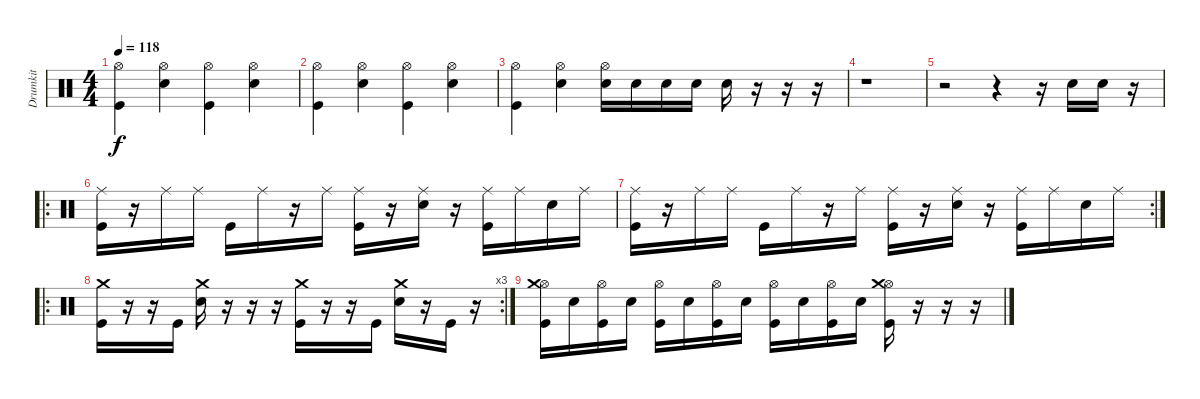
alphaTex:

\track ("Drumkit" "Drumkit") {instrument percussion}
\staff {score}
\articulation defaults
\ts (4 4)
\tempo 118
\clef neutral
\ks c
("Hi-Hat (open)" "Kick (hit)").4{dy f} ("Hi-Hat (open)" "Snare (hit) 2").4 ("Hi-Hat (open)" "Kick (hit)").4 ("Hi-Hat (open)" "Snare (hit) 2").4 |
("Hi-Hat (open)" "Kick (hit)").4 ("Hi-Hat (open)" "Snare (hit) 2").4 ("Hi-Hat (open)" "Kick (hit)").4 ("Hi-Hat (open)" "Snare (hit) 2").4 |
("Hi-Hat (open)" "Kick (hit)").4 ("Hi-Hat (open)" "Snare (hit) 2").4 ("Hi-Hat (open)" "Snare (hit) 2").16 "Snare (hit) 2".16 "Snare (hit) 2".16 "Snare (hit) 2".16 "Snare (hit) 2".16 r.16 r.16 r.16 |
r.1 |
r.2 r.4 r.16 "Snare (hit) 2".16 "Snare (hit) 2".16 r.16 |
\ro
("Ride (middle)" "Kick (hit)").16 r.16 "Ride (middle)".16 "Ride (middle)".16 "Kick (hit)".16 "Ride (middle)".16 r.16 "Ride (middle)".16 ("Ride (middle)" "Kick (hit)").16 r.16 ("Ride (middle)" "Snare (hit) 2").16 r.16 ("Ride (middle)" "Kick (hit)").16 "Ride (middle)".16 "Snare (hit) 2".16 "Ride (middle)".16 |
\rc 2
("Ride (middle)" "Kick (hit)").16 r.16 "Ride (middle)".16 "Ride (middle)".16 "Kick (hit)".16 "Ride (middle)".16 r.16 "Ride (middle)".16 ("Ride (middle)" "Kick (hit)").16 r.16 ("Ride (middle)" "Snare (hit) 2").16 r.16 ("Ride (middle)" "Kick (hit)").16 "Ride (middle)".16 "Snare (hit) 2".16 "Ride (middle)".16 |
\ro
\rc 3
("Crash medium (hit)" "Kick (hit)").16 r.16 r.16 "Kick (hit)".16 ("Crash medium (hit)" "Snare (hit) 2").16 r.16 r.16 r.16 ("Crash medium (hit)" "Kick (hit)").16 r.16 r.16 "Kick (hit)".16 ("Crash medium (hit)" "Snare (hit) 2").16 r.16 "Kick (hit)".16 r.16 |
("Hi-Hat (open)" "Kick (hit)" "Crash medium (hit)").16 "Snare (hit) 2".16 ("Hi-Hat (open)" "Kick (hit)").16 "Snare (hit) 2".16 ("Hi-Hat (open)" "Kick (hit)").16 "Snare (hit) 2".16 ("Hi-Hat (open)" "Kick (hit)").16 "Snare (hit) 2".16 ("Hi-Hat (open)" "Kick (hit)").16 "Snare (hit) 2".16 ("Hi-Hat (open)" "Kick (hit)").16 "Snare (hit) 2".16 ("Hi-Hat (open)" "Kick (hit)" "Crash medium (hit)").16 r.16 r.16 r.16
